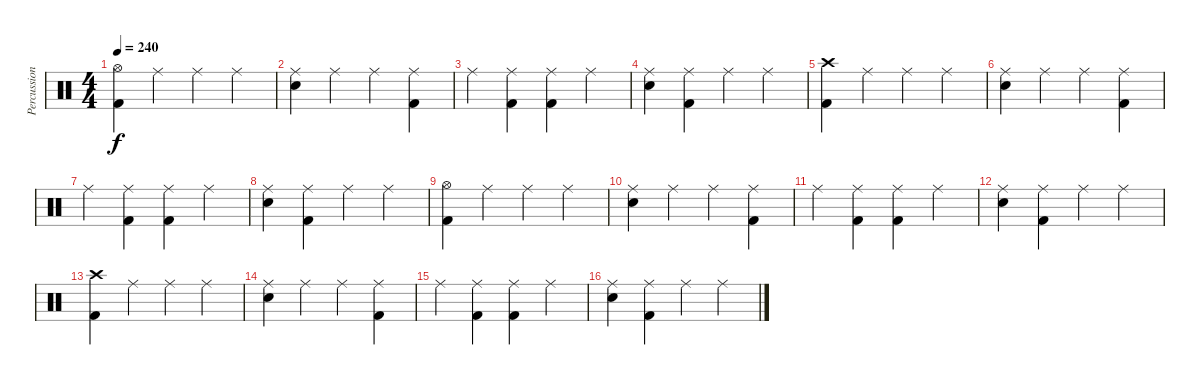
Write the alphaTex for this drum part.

\track ("Percussion" "Percussion") {instrument percussion}
\staff {score}
\articulation defaults
\ts (4 4)
\tempo 240
\clef neutral
\ks c
("Hi-Hat (open)" "Kick (hit) 2").4{dy f} "Ride (middle)".4 "Ride (middle)".4 "Ride (middle)".4 |
("Ride (middle)" "Snare (hit) 2").4 "Ride (middle)".4 "Ride (middle)".4 ("Ride (middle)" "Kick (hit) 2").4 |
"Ride (middle)".4 ("Ride (middle)" "Kick (hit) 2").4 ("Ride (middle)" "Kick (hit) 2").4 "Ride (middle)".4 |
("Ride (middle)" "Snare (hit) 2").4 ("Ride (middle)" "Kick (hit) 2").4 "Ride (middle)".4 "Ride (middle)".4 |
("Crash high (hit)" "Kick (hit) 2").4 "Ride (middle)".4 "Ride (middle)".4 "Ride (middle)".4 |
("Ride (middle)" "Snare (hit) 2").4 "Ride (middle)".4 "Ride (middle)".4 ("Ride (middle)" "Kick (hit) 2").4 |
"Ride (middle)".4 ("Ride (middle)" "Kick (hit) 2").4 ("Ride (middle)" "Kick (hit) 2").4 "Ride (middle)".4 |
("Ride (middle)" "Snare (hit) 2").4 ("Ride (middle)" "Kick (hit) 2").4 "Ride (middle)".4 "Ride (middle)".4 |
("Hi-Hat (open)" "Kick (hit) 2").4 "Ride (middle)".4 "Ride (middle)".4 "Ride (middle)".4 |
("Ride (middle)" "Snare (hit) 2").4 "Ride (middle)".4 "Ride (middle)".4 ("Ride (middle)" "Kick (hit) 2").4 |
"Ride (middle)".4 ("Ride (middle)" "Kick (hit) 2").4 ("Ride (middle)" "Kick (hit) 2").4 "Ride (middle)".4 |
("Ride (middle)" "Snare (hit) 2").4 ("Ride (middle)" "Kick (hit) 2").4 "Ride (middle)".4 "Ride (middle)".4 |
("Crash high (hit)" "Kick (hit) 2").4 "Ride (middle)".4 "Ride (middle)".4 "Ride (middle)".4 |
("Ride (middle)" "Snare (hit) 2").4 "Ride (middle)".4 "Ride (middle)".4 ("Ride (middle)" "Kick (hit) 2").4 |
"Ride (middle)".4 ("Ride (middle)" "Kick (hit) 2").4 ("Ride (middle)" "Kick (hit) 2").4 "Ride (middle)".4 |
("Ride (middle)" "Snare (hit) 2").4 ("Ride (middle)" "Kick (hit) 2").4 "Ride (middle)".4 "Ride (middle)".4
